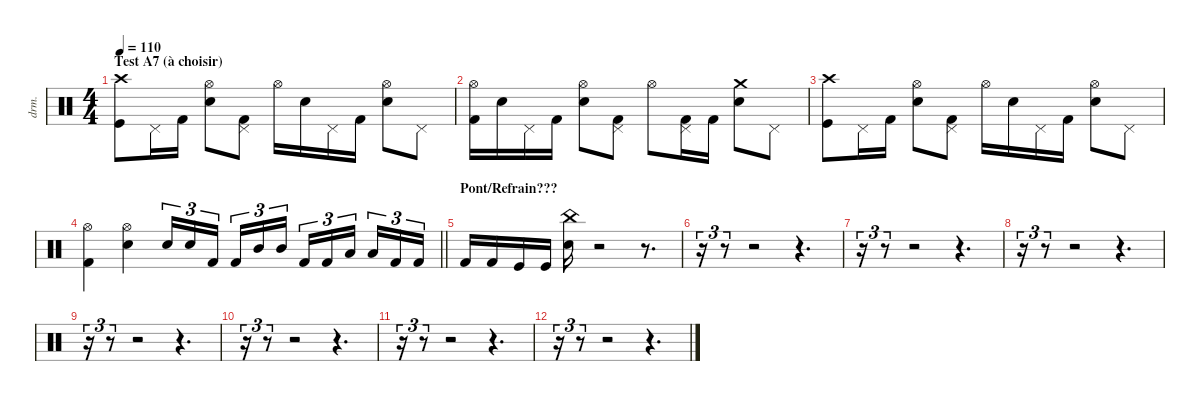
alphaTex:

\defaultSystemsLayout 4
\hideDynamics
\bracketExtendMode nobrackets
\otherSystemsTrackNameOrientation horizontal
\track ("Manu" "drm.") {instrument percussion}
\staff {score}
\articulation defaults
\ts (4 4)
\section ("" "Test A7 (à choisir)")
\tempo 110
\clef neutral
\ks c
("Crash high (hit)" "Kick (hit)").8{dy f} "Pedal Hi-Hat (hit)".16 "Kick (hit) 2".16 ("Hi-Hat (open)" "Snare (hit) 2").8 ("Pedal Hi-Hat (hit)" "Kick (hit) 2").8 "Hi-Hat (open)".16 "Snare (hit) 2".16{dy mp} "Pedal Hi-Hat (hit)".16{dy f} "Kick (hit) 2".16{dy mp} ("Hi-Hat (open)" "Snare (hit) 2").8{dy f} "Pedal Hi-Hat (hit)".8 |
("Hi-Hat (open)" "Kick (hit) 2").16 "Snare (hit) 2".16{dy mp} "Pedal Hi-Hat (hit)".16{dy f} "Kick (hit) 2".16 ("Hi-Hat (open)" "Snare (hit) 2").8 ("Pedal Hi-Hat (hit)" "Kick (hit) 2").8 "Hi-Hat (open)".8 ("Pedal Hi-Hat (hit)" "Kick (hit) 2").16 "Kick (hit) 2".16 ("Snare (hit) 2" "Crash medium (hit)").8 "Pedal Hi-Hat (hit)".8 |
("Crash high (hit)" "Kick (hit)").8 "Pedal Hi-Hat (hit)".16 "Kick (hit) 2".16 ("Hi-Hat (open)" "Snare (hit) 2").8 ("Pedal Hi-Hat (hit)" "Kick (hit) 2").8 "Hi-Hat (open)".16 "Snare (hit) 2".16{dy mp} "Pedal Hi-Hat (hit)".16{dy f} "Kick (hit) 2".16{dy mp} ("Hi-Hat (open)" "Snare (hit) 2").8{dy f} "Pedal Hi-Hat (hit)".8 |
\barLineRight lightlight
("Hi-Hat (open)" "Kick (hit) 2").4 ("Hi-Hat (open)" "Snare (hit) 2").4 "Snare (hit) 2".16{tu (3 2)} "Snare (hit) 2".16{tu (3 2)} "Kick (hit) 2".16{tu (3 2)} "Kick (hit) 2".16{tu (3 2)} "Mid Tom (hit)".16{tu (3 2)} "Mid Tom (hit)".16{tu (3 2)} "Kick (hit) 2".16{tu (3 2)} "Kick (hit) 2".16{tu (3 2)} "Low Tom (hit)".16{tu (3 2)} "Low Tom (hit)".16{tu (3 2)} "Kick (hit) 2".16{tu (3 2)} "Kick (hit) 2".16{tu (3 2)} |
\section ("" "Pont/Refrain???")
"Kick (hit) 2".16 "Kick (hit) 2".16 "Kick (hit)".16 "Kick (hit)".16 ("Snare (hit) 2" "China (hit)").16 r.2 r.8{d} |
r.16{tu (3 2)} r.8{tu (3 2)} r.2 r.4{d} |
r.16{tu (3 2)} r.8{tu (3 2)} r.2 r.4{d} |
r.16{tu (3 2)} r.8{tu (3 2)} r.2 r.4{d} |
r.16{tu (3 2)} r.8{tu (3 2)} r.2 r.4{d} |
r.16{tu (3 2)} r.8{tu (3 2)} r.2 r.4{d} |
r.16{tu (3 2)} r.8{tu (3 2)} r.2 r.4{d} |
r.16{tu (3 2)} r.8{tu (3 2)} r.2 r.4{d}
